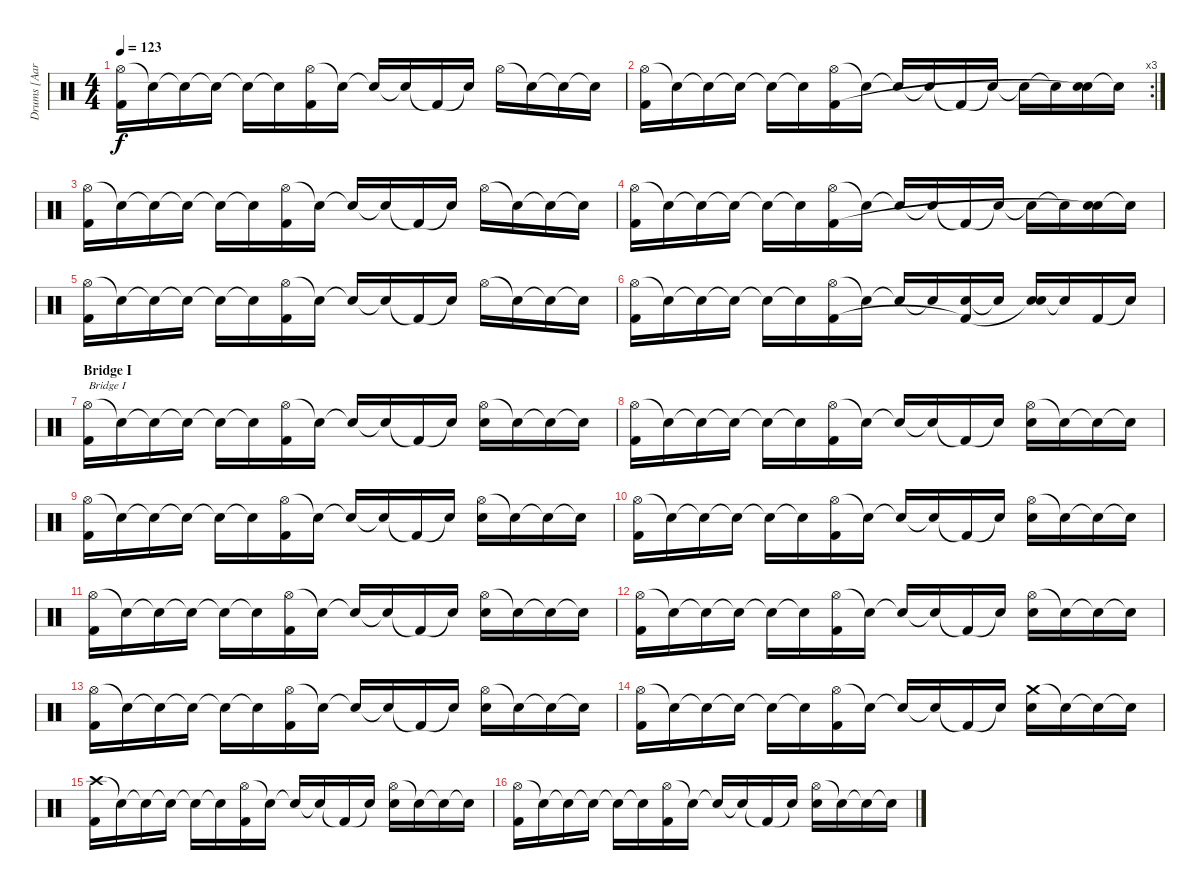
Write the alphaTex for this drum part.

\track ("Drums [Aaron Harris]" "Drums [Aar") {instrument percussion}
\staff {score}
\articulation defaults
\ts (4 4)
\tempo 123
\clef neutral
\ks c
("Hi-Hat (open)" "Kick (hit) 2").16{dy f} "Snare (hit)"{t}.16 "Snare (hit)"{t}.16 "Snare (hit)"{t}.16 "Snare (hit)"{t}.16 "Snare (hit)"{t}.16 ("Hi-Hat (open)" "Kick (hit) 2").16 "Snare (hit)"{t}.16 "Snare (hit)"{t}.16 "Snare (hit)"{t}.16 "Kick (hit) 2"{t}.16 "Snare (hit)"{t}.16 "Hi-Hat (open)".16 "Snare (hit)"{t}.16 "Snare (hit)"{t}.16 "Snare (hit)"{t}.16 |
\rc 3
("Hi-Hat (open)" "Kick (hit) 2").16 "Snare (hit)"{t}.16 "Snare (hit)"{t}.16 "Snare (hit)"{t}.16 "Snare (hit)"{t}.16 "Snare (hit)"{t}.16 ("Hi-Hat (open)" "Kick (hit) 2").16 "Snare (hit)"{t}.16 "Snare (hit)"{t}.16 "Snare (hit)"{t}.16 "Kick (hit) 2"{t}.16 "Snare (hit)"{t}.16 "Snare (hit)"{t}.16 "Snare (hit)"{t}.16 ("Electric Snare (hit)" "Snare (hit)"{t}).16 "Snare (hit)"{t}.16 |
("Hi-Hat (open)" "Kick (hit) 2").16 "Snare (hit)"{t}.16 "Snare (hit)"{t}.16 "Snare (hit)"{t}.16 "Snare (hit)"{t}.16 "Snare (hit)"{t}.16 ("Hi-Hat (open)" "Kick (hit) 2").16 "Snare (hit)"{t}.16 "Snare (hit)"{t}.16 "Snare (hit)"{t}.16 "Kick (hit) 2"{t}.16 "Snare (hit)"{t}.16 "Hi-Hat (open)".16 "Snare (hit)"{t}.16 "Snare (hit)"{t}.16 "Snare (hit)"{t}.16 |
("Hi-Hat (open)" "Kick (hit) 2").16 "Snare (hit)"{t}.16 "Snare (hit)"{t}.16 "Snare (hit)"{t}.16 "Snare (hit)"{t}.16 "Snare (hit)"{t}.16 ("Hi-Hat (open)" "Kick (hit) 2").16 "Snare (hit)"{t}.16 "Snare (hit)"{t}.16 "Snare (hit)"{t}.16 "Kick (hit) 2"{t}.16 "Snare (hit)"{t}.16 "Snare (hit)"{t}.16 "Snare (hit)"{t}.16 ("Electric Snare (hit)" "Snare (hit)"{t}).16 "Snare (hit)"{t}.16 |
("Hi-Hat (open)" "Kick (hit) 2").16 "Snare (hit)"{t}.16 "Snare (hit)"{t}.16 "Snare (hit)"{t}.16 "Snare (hit)"{t}.16 "Snare (hit)"{t}.16 ("Hi-Hat (open)" "Kick (hit) 2").16 "Snare (hit)"{t}.16 "Snare (hit)"{t}.16 "Snare (hit)"{t}.16 "Kick (hit) 2"{t}.16 "Snare (hit)"{t}.16 "Hi-Hat (open)".16 "Snare (hit)"{t}.16 "Snare (hit)"{t}.16 "Snare (hit)"{t}.16 |
("Hi-Hat (open)" "Kick (hit) 2").16 "Snare (hit)"{t}.16 "Snare (hit)"{t}.16 "Snare (hit)"{t}.16 "Snare (hit)"{t}.16 "Snare (hit)"{t}.16 ("Hi-Hat (open)" "Kick (hit) 2").16 "Snare (hit)"{t}.16 "Snare (hit)"{t}.16 "Snare (hit)"{t}.16 ("Electric Snare (hit)" "Kick (hit) 2"{t}).16 "Snare (hit)"{t}.16 ("Electric Snare (hit)" "Snare (hit)"{t}).16 "Snare (hit)"{t}.16 "Kick (hit) 2".16 "Snare (hit)"{t}.16 |
\section ("" "Bridge I")
("Hi-Hat (open)" "Kick (hit) 2").16{txt "Bridge I"} "Snare (hit)"{t}.16 "Snare (hit)"{t}.16 "Snare (hit)"{t}.16 "Snare (hit)"{t}.16 "Snare (hit)"{t}.16 ("Hi-Hat (open)" "Kick (hit) 2").16 "Snare (hit)"{t}.16 "Snare (hit)"{t}.16 "Snare (hit)"{t}.16 "Kick (hit) 2"{t}.16 "Snare (hit)"{t}.16 ("Hi-Hat (open)" "Electric Snare (hit)").16 "Snare (hit)"{t}.16 "Snare (hit)"{t}.16 "Snare (hit)"{t}.16 |
("Hi-Hat (open)" "Kick (hit) 2").16 "Snare (hit)"{t}.16 "Snare (hit)"{t}.16 "Snare (hit)"{t}.16 "Snare (hit)"{t}.16 "Snare (hit)"{t}.16 ("Hi-Hat (open)" "Kick (hit) 2").16 "Snare (hit)"{t}.16 "Snare (hit)"{t}.16 "Snare (hit)"{t}.16 "Kick (hit) 2"{t}.16 "Snare (hit)"{t}.16 ("Hi-Hat (open)" "Electric Snare (hit)").16 "Snare (hit)"{t}.16 "Snare (hit)"{t}.16 "Snare (hit)"{t}.16 |
("Hi-Hat (open)" "Kick (hit) 2").16 "Snare (hit)"{t}.16 "Snare (hit)"{t}.16 "Snare (hit)"{t}.16 "Snare (hit)"{t}.16 "Snare (hit)"{t}.16 ("Hi-Hat (open)" "Kick (hit) 2").16 "Snare (hit)"{t}.16 "Snare (hit)"{t}.16 "Snare (hit)"{t}.16 "Kick (hit) 2"{t}.16 "Snare (hit)"{t}.16 ("Hi-Hat (open)" "Electric Snare (hit)").16 "Snare (hit)"{t}.16 "Snare (hit)"{t}.16 "Snare (hit)"{t}.16 |
("Hi-Hat (open)" "Kick (hit) 2").16 "Snare (hit)"{t}.16 "Snare (hit)"{t}.16 "Snare (hit)"{t}.16 "Snare (hit)"{t}.16 "Snare (hit)"{t}.16 ("Hi-Hat (open)" "Kick (hit) 2").16 "Snare (hit)"{t}.16 "Snare (hit)"{t}.16 "Snare (hit)"{t}.16 "Kick (hit) 2"{t}.16 "Snare (hit)"{t}.16 ("Hi-Hat (open)" "Electric Snare (hit)").16 "Snare (hit)"{t}.16 "Snare (hit)"{t}.16 "Snare (hit)"{t}.16 |
("Hi-Hat (open)" "Kick (hit) 2").16 "Snare (hit)"{t}.16 "Snare (hit)"{t}.16 "Snare (hit)"{t}.16 "Snare (hit)"{t}.16 "Snare (hit)"{t}.16 ("Hi-Hat (open)" "Kick (hit) 2").16 "Snare (hit)"{t}.16 "Snare (hit)"{t}.16 "Snare (hit)"{t}.16 "Kick (hit) 2"{t}.16 "Snare (hit)"{t}.16 ("Hi-Hat (open)" "Electric Snare (hit)").16 "Snare (hit)"{t}.16 "Snare (hit)"{t}.16 "Snare (hit)"{t}.16 |
("Hi-Hat (open)" "Kick (hit) 2").16 "Snare (hit)"{t}.16 "Snare (hit)"{t}.16 "Snare (hit)"{t}.16 "Snare (hit)"{t}.16 "Snare (hit)"{t}.16 ("Hi-Hat (open)" "Kick (hit) 2").16 "Snare (hit)"{t}.16 "Snare (hit)"{t}.16 "Snare (hit)"{t}.16 "Kick (hit) 2"{t}.16 "Snare (hit)"{t}.16 ("Hi-Hat (open)" "Electric Snare (hit)").16 "Snare (hit)"{t}.16 "Snare (hit)"{t}.16 "Snare (hit)"{t}.16 |
("Hi-Hat (open)" "Kick (hit) 2").16 "Snare (hit)"{t}.16 "Snare (hit)"{t}.16 "Snare (hit)"{t}.16 "Snare (hit)"{t}.16 "Snare (hit)"{t}.16 ("Hi-Hat (open)" "Kick (hit) 2").16 "Snare (hit)"{t}.16 "Snare (hit)"{t}.16 "Snare (hit)"{t}.16 "Kick (hit) 2"{t}.16 "Snare (hit)"{t}.16 ("Hi-Hat (open)" "Electric Snare (hit)").16 "Snare (hit)"{t}.16 "Snare (hit)"{t}.16 "Snare (hit)"{t}.16 |
("Hi-Hat (open)" "Kick (hit) 2").16 "Snare (hit)"{t}.16 "Snare (hit)"{t}.16 "Snare (hit)"{t}.16 "Snare (hit)"{t}.16 "Snare (hit)"{t}.16 ("Hi-Hat (open)" "Kick (hit) 2").16 "Snare (hit)"{t}.16 "Snare (hit)"{t}.16 "Snare (hit)"{t}.16 "Kick (hit) 2"{t}.16 "Snare (hit)"{t}.16 ("Crash medium (hit)" "Electric Snare (hit)").16 "Snare (hit)"{t}.16 "Snare (hit)"{t}.16 "Snare (hit)"{t}.16 |
("Crash high (hit)" "Kick (hit) 2").16 "Snare (hit)"{t}.16 "Snare (hit)"{t}.16 "Snare (hit)"{t}.16 "Snare (hit)"{t}.16 "Snare (hit)"{t}.16 ("Hi-Hat (open)" "Kick (hit) 2").16 "Snare (hit)"{t}.16 "Snare (hit)"{t}.16 "Snare (hit)"{t}.16 "Kick (hit) 2"{t}.16 "Snare (hit)"{t}.16 ("Hi-Hat (open)" "Electric Snare (hit)").16 "Snare (hit)"{t}.16 "Snare (hit)"{t}.16 "Snare (hit)"{t}.16 |
("Hi-Hat (open)" "Kick (hit) 2").16 "Snare (hit)"{t}.16 "Snare (hit)"{t}.16 "Snare (hit)"{t}.16 "Snare (hit)"{t}.16 "Snare (hit)"{t}.16 ("Hi-Hat (open)" "Kick (hit) 2").16 "Snare (hit)"{t}.16 "Snare (hit)"{t}.16 "Snare (hit)"{t}.16 "Kick (hit) 2"{t}.16 "Snare (hit)"{t}.16 ("Hi-Hat (open)" "Electric Snare (hit)").16 "Snare (hit)"{t}.16 "Snare (hit)"{t}.16 "Snare (hit)"{t}.16
